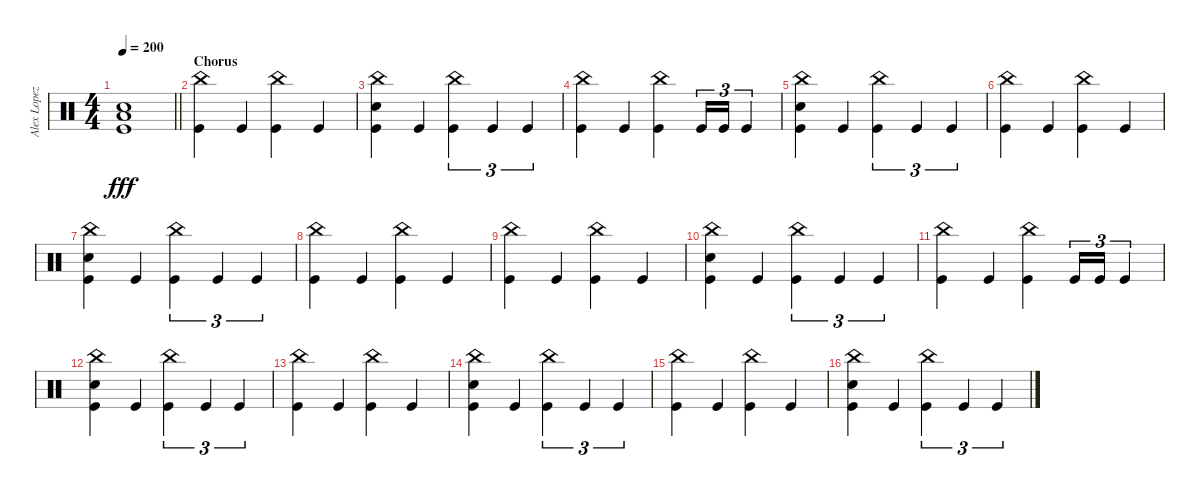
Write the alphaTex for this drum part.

\track ("Alex Lopez" "Alex Lopez") {instrument percussion}
\staff {score}
\articulation defaults
\ts (4 4)
\tempo 200
\clef neutral
\barLineRight lightlight
\ks c
("Low Floor Tom (hit)" "Snare (hit) 2" "Kick (hit)").1{dy fff} |
\section ("" "Chorus")
("China (hit)" "Kick (hit)").4 "Kick (hit)".4 ("China (hit)" "Kick (hit)").4 "Kick (hit)".4 |
("China (hit)" "Snare (hit) 2" "Kick (hit)").4 "Kick (hit)".4 ("China (hit)" "Kick (hit)").4{tu (3 2)} "Kick (hit)".4{tu (3 2)} "Kick (hit)".4{tu (3 2)} |
("China (hit)" "Kick (hit)").4 "Kick (hit)".4 ("China (hit)" "Kick (hit)").4 "Kick (hit)".16{tu (3 2)} "Kick (hit)".16{tu (3 2)} "Kick (hit)".4{tu (3 2)} |
("China (hit)" "Snare (hit) 2" "Kick (hit)").4 "Kick (hit)".4 ("China (hit)" "Kick (hit)").4{tu (3 2)} "Kick (hit)".4{tu (3 2)} "Kick (hit)".4{tu (3 2)} |
("China (hit)" "Kick (hit)").4 "Kick (hit)".4 ("China (hit)" "Kick (hit)").4 "Kick (hit)".4 |
("China (hit)" "Snare (hit) 2" "Kick (hit)").4 "Kick (hit)".4 ("China (hit)" "Kick (hit)").4{tu (3 2)} "Kick (hit)".4{tu (3 2)} "Kick (hit)".4{tu (3 2)} |
("China (hit)" "Kick (hit)").4 "Kick (hit)".4 ("China (hit)" "Kick (hit)").4 "Kick (hit)".4 |
("China (hit)" "Kick (hit)").4 "Kick (hit)".4 ("China (hit)" "Kick (hit)").4 "Kick (hit)".4 |
("China (hit)" "Snare (hit) 2" "Kick (hit)").4 "Kick (hit)".4 ("China (hit)" "Kick (hit)").4{tu (3 2)} "Kick (hit)".4{tu (3 2)} "Kick (hit)".4{tu (3 2)} |
("China (hit)" "Kick (hit)").4 "Kick (hit)".4 ("China (hit)" "Kick (hit)").4 "Kick (hit)".16{tu (3 2)} "Kick (hit)".16{tu (3 2)} "Kick (hit)".4{tu (3 2)} |
("China (hit)" "Snare (hit) 2" "Kick (hit)").4 "Kick (hit)".4 ("China (hit)" "Kick (hit)").4{tu (3 2)} "Kick (hit)".4{tu (3 2)} "Kick (hit)".4{tu (3 2)} |
("China (hit)" "Kick (hit)").4 "Kick (hit)".4 ("China (hit)" "Kick (hit)").4 "Kick (hit)".4 |
("China (hit)" "Snare (hit) 2" "Kick (hit)").4 "Kick (hit)".4 ("China (hit)" "Kick (hit)").4{tu (3 2)} "Kick (hit)".4{tu (3 2)} "Kick (hit)".4{tu (3 2)} |
("China (hit)" "Kick (hit)").4 "Kick (hit)".4 ("China (hit)" "Kick (hit)").4 "Kick (hit)".4 |
("China (hit)" "Snare (hit) 2" "Kick (hit)").4 "Kick (hit)".4 ("China (hit)" "Kick (hit)").4{tu (3 2)} "Kick (hit)".4{tu (3 2)} "Kick (hit)".4{tu (3 2)}
